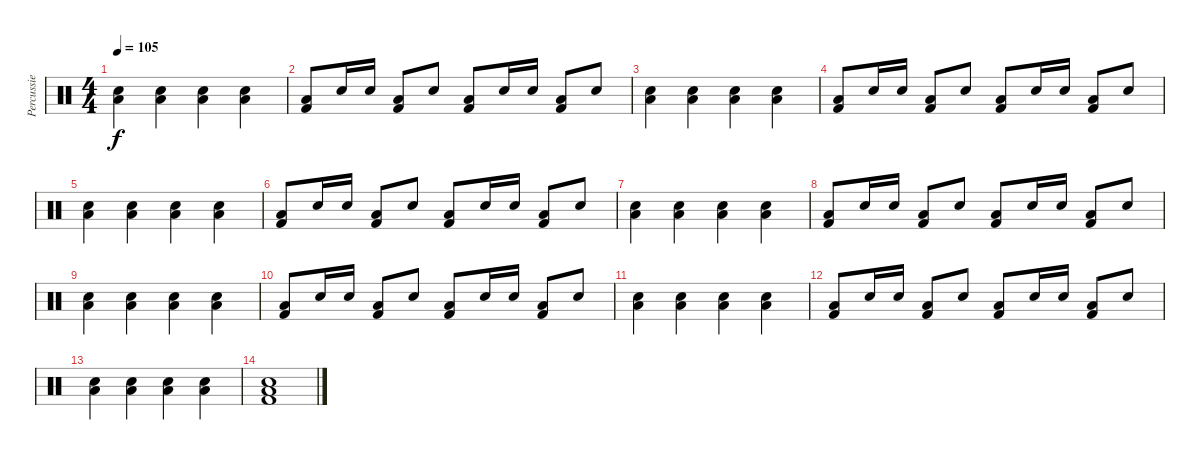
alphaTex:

\track ("Percussie" "Percussie") {instrument percussion}
\staff {score}
\articulation defaults
\ts (4 4)
\tempo 105
\clef neutral
\ks c
("Low Floor Tom (hit)" "Snare (hit) 2").4{dy f} ("Low Floor Tom (hit)" "Snare (hit) 2").4 ("Low Floor Tom (hit)" "Snare (hit) 2").4 ("Low Floor Tom (hit)" "Snare (hit) 2").4 |
("Low Floor Tom (hit)" "Kick (hit) 2").8 "Snare (hit) 2".16 "Snare (hit) 2".16 ("Low Floor Tom (hit)" "Kick (hit) 2").8 "Snare (hit) 2".8 ("Low Floor Tom (hit)" "Kick (hit) 2").8 "Snare (hit) 2".16 "Snare (hit) 2".16 ("Low Floor Tom (hit)" "Kick (hit) 2").8 "Snare (hit) 2".8 |
("Low Floor Tom (hit)" "Snare (hit) 2").4 ("Low Floor Tom (hit)" "Snare (hit) 2").4 ("Low Floor Tom (hit)" "Snare (hit) 2").4 ("Low Floor Tom (hit)" "Snare (hit) 2").4 |
("Low Floor Tom (hit)" "Kick (hit) 2").8 "Snare (hit) 2".16 "Snare (hit) 2".16 ("Low Floor Tom (hit)" "Kick (hit) 2").8 "Snare (hit) 2".8 ("Low Floor Tom (hit)" "Kick (hit) 2").8 "Snare (hit) 2".16 "Snare (hit) 2".16 ("Low Floor Tom (hit)" "Kick (hit) 2").8 "Snare (hit) 2".8 |
("Low Floor Tom (hit)" "Snare (hit) 2").4 ("Low Floor Tom (hit)" "Snare (hit) 2").4 ("Low Floor Tom (hit)" "Snare (hit) 2").4 ("Low Floor Tom (hit)" "Snare (hit) 2").4 |
("Low Floor Tom (hit)" "Kick (hit) 2").8 "Snare (hit) 2".16 "Snare (hit) 2".16 ("Low Floor Tom (hit)" "Kick (hit) 2").8 "Snare (hit) 2".8 ("Low Floor Tom (hit)" "Kick (hit) 2").8 "Snare (hit) 2".16 "Snare (hit) 2".16 ("Low Floor Tom (hit)" "Kick (hit) 2").8 "Snare (hit) 2".8 |
("Low Floor Tom (hit)" "Snare (hit) 2").4 ("Low Floor Tom (hit)" "Snare (hit) 2").4 ("Low Floor Tom (hit)" "Snare (hit) 2").4 ("Low Floor Tom (hit)" "Snare (hit) 2").4 |
("Low Floor Tom (hit)" "Kick (hit) 2").8 "Snare (hit) 2".16 "Snare (hit) 2".16 ("Low Floor Tom (hit)" "Kick (hit) 2").8 "Snare (hit) 2".8 ("Low Floor Tom (hit)" "Kick (hit) 2").8 "Snare (hit) 2".16 "Snare (hit) 2".16 ("Low Floor Tom (hit)" "Kick (hit) 2").8 "Snare (hit) 2".8 |
("Low Floor Tom (hit)" "Snare (hit) 2").4 ("Low Floor Tom (hit)" "Snare (hit) 2").4 ("Low Floor Tom (hit)" "Snare (hit) 2").4 ("Low Floor Tom (hit)" "Snare (hit) 2").4 |
("Low Floor Tom (hit)" "Kick (hit) 2").8 "Snare (hit) 2".16 "Snare (hit) 2".16 ("Low Floor Tom (hit)" "Kick (hit) 2").8 "Snare (hit) 2".8 ("Low Floor Tom (hit)" "Kick (hit) 2").8 "Snare (hit) 2".16 "Snare (hit) 2".16 ("Low Floor Tom (hit)" "Kick (hit) 2").8 "Snare (hit) 2".8 |
("Low Floor Tom (hit)" "Snare (hit) 2").4 ("Low Floor Tom (hit)" "Snare (hit) 2").4 ("Low Floor Tom (hit)" "Snare (hit) 2").4 ("Low Floor Tom (hit)" "Snare (hit) 2").4 |
("Low Floor Tom (hit)" "Kick (hit) 2").8 "Snare (hit) 2".16 "Snare (hit) 2".16 ("Low Floor Tom (hit)" "Kick (hit) 2").8 "Snare (hit) 2".8 ("Low Floor Tom (hit)" "Kick (hit) 2").8 "Snare (hit) 2".16 "Snare (hit) 2".16 ("Low Floor Tom (hit)" "Kick (hit) 2").8 "Snare (hit) 2".8 |
("Low Floor Tom (hit)" "Snare (hit) 2").4 ("Low Floor Tom (hit)" "Snare (hit) 2").4 ("Low Floor Tom (hit)" "Snare (hit) 2").4 ("Low Floor Tom (hit)" "Snare (hit) 2").4 |
("Low Floor Tom (hit)" "Snare (hit) 2" "Kick (hit) 2").1
